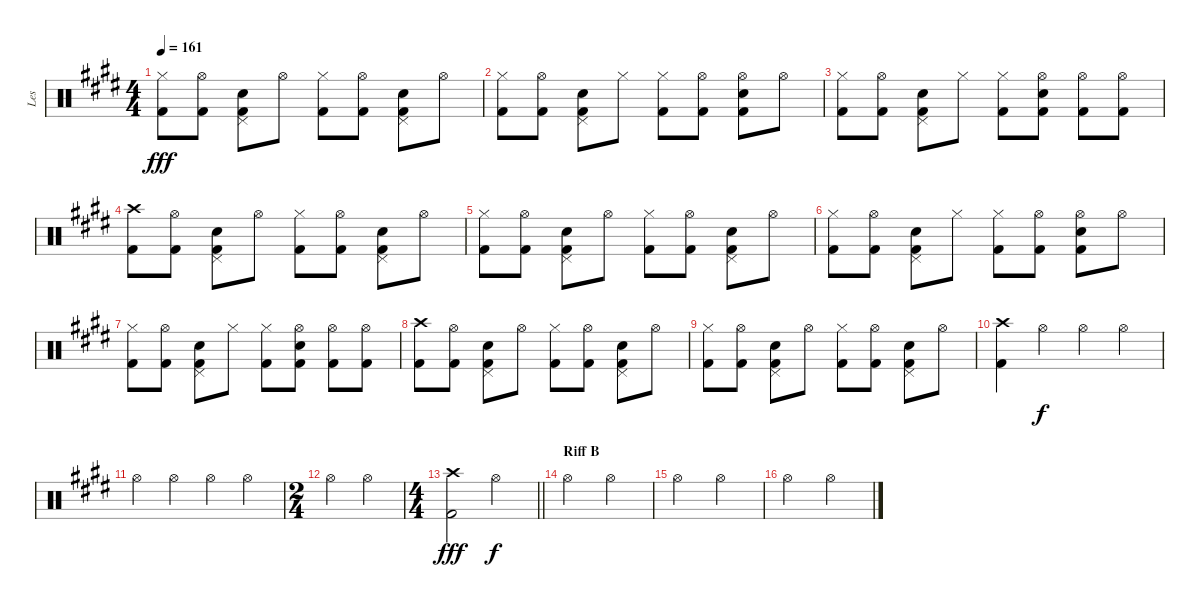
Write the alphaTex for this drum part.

\track ("Les" "Les") {instrument percussion}
\staff {score}
\articulation defaults
\ts (4 4)
\tempo 161
\clef neutral
\ks e
("Hi-Hat (closed)" "Kick (hit) 2").8{dy fff} ("Hi-Hat (open)" "Kick (hit) 2").8 ("Pedal Hi-Hat (hit)" "Snare (hit) 2" "Kick (hit) 2").8 "Hi-Hat (open)".8 ("Hi-Hat (closed)" "Kick (hit) 2").8 ("Hi-Hat (open)" "Kick (hit) 2").8 ("Pedal Hi-Hat (hit)" "Snare (hit) 2" "Kick (hit) 2").8 "Hi-Hat (open)".8 |
("Hi-Hat (closed)" "Kick (hit) 2").8 ("Hi-Hat (open)" "Kick (hit) 2").8 ("Pedal Hi-Hat (hit)" "Snare (hit) 2" "Kick (hit) 2").8 "Hi-Hat (closed)".8 ("Hi-Hat (closed)" "Kick (hit) 2").8 ("Hi-Hat (open)" "Kick (hit) 2").8 ("Hi-Hat (open)" "Snare (hit) 2" "Kick (hit) 2").8 "Hi-Hat (open)".8 |
("Hi-Hat (closed)" "Kick (hit) 2").8 ("Hi-Hat (open)" "Kick (hit) 2").8 ("Pedal Hi-Hat (hit)" "Snare (hit) 2" "Kick (hit) 2").8 "Hi-Hat (closed)".8 ("Hi-Hat (closed)" "Kick (hit) 2").8 ("Hi-Hat (open)" "Snare (hit) 2" "Kick (hit) 2").8 ("Hi-Hat (open)" "Kick (hit) 2").8 ("Hi-Hat (open)" "Kick (hit) 2").8 |
("Crash high (hit)" "Kick (hit) 2").8 ("Hi-Hat (open)" "Kick (hit) 2").8 ("Pedal Hi-Hat (hit)" "Snare (hit) 2" "Kick (hit) 2").8 "Hi-Hat (open)".8 ("Hi-Hat (closed)" "Kick (hit) 2").8 ("Hi-Hat (open)" "Kick (hit) 2").8 ("Pedal Hi-Hat (hit)" "Snare (hit) 2" "Kick (hit) 2").8 "Hi-Hat (open)".8 |
("Hi-Hat (closed)" "Kick (hit) 2").8 ("Hi-Hat (open)" "Kick (hit) 2").8 ("Pedal Hi-Hat (hit)" "Snare (hit) 2" "Kick (hit) 2").8 "Hi-Hat (open)".8 ("Hi-Hat (closed)" "Kick (hit) 2").8 ("Hi-Hat (open)" "Kick (hit) 2").8 ("Pedal Hi-Hat (hit)" "Snare (hit) 2" "Kick (hit) 2").8 "Hi-Hat (open)".8 |
("Hi-Hat (closed)" "Kick (hit) 2").8 ("Hi-Hat (open)" "Kick (hit) 2").8 ("Pedal Hi-Hat (hit)" "Snare (hit) 2" "Kick (hit) 2").8 "Hi-Hat (closed)".8 ("Hi-Hat (closed)" "Kick (hit) 2").8 ("Hi-Hat (open)" "Kick (hit) 2").8 ("Hi-Hat (open)" "Snare (hit) 2" "Kick (hit) 2").8 "Hi-Hat (open)".8 |
("Hi-Hat (closed)" "Kick (hit) 2").8 ("Hi-Hat (open)" "Kick (hit) 2").8 ("Pedal Hi-Hat (hit)" "Snare (hit) 2" "Kick (hit) 2").8 "Hi-Hat (closed)".8 ("Hi-Hat (closed)" "Kick (hit) 2").8 ("Hi-Hat (open)" "Snare (hit) 2" "Kick (hit) 2").8 ("Hi-Hat (open)" "Kick (hit) 2").8 ("Hi-Hat (open)" "Kick (hit) 2").8 |
("Crash high (hit)" "Kick (hit) 2").8 ("Hi-Hat (open)" "Kick (hit) 2").8 ("Pedal Hi-Hat (hit)" "Snare (hit) 2" "Kick (hit) 2").8 "Hi-Hat (open)".8 ("Hi-Hat (closed)" "Kick (hit) 2").8 ("Hi-Hat (open)" "Kick (hit) 2").8 ("Pedal Hi-Hat (hit)" "Snare (hit) 2" "Kick (hit) 2").8 "Hi-Hat (open)".8 |
("Hi-Hat (closed)" "Kick (hit) 2").8 ("Hi-Hat (open)" "Kick (hit) 2").8 ("Pedal Hi-Hat (hit)" "Snare (hit) 2" "Kick (hit) 2").8 "Hi-Hat (open)".8 ("Hi-Hat (closed)" "Kick (hit) 2").8 ("Hi-Hat (open)" "Kick (hit) 2").8 ("Pedal Hi-Hat (hit)" "Snare (hit) 2" "Kick (hit) 2").8 "Hi-Hat (open)".8 |
("Crash high (hit)" "Kick (hit) 2").4 "Hi-Hat (open)".4{dy f} "Hi-Hat (open)".4 "Hi-Hat (open)".4 |
"Hi-Hat (open)".4 "Hi-Hat (open)".4 "Hi-Hat (open)".4 "Hi-Hat (open)".4 |
\ts (2 4)
"Hi-Hat (open)".4 "Hi-Hat (open)".4 |
\ts (4 4)
\barLineRight lightlight
("Crash high (hit)" "Kick (hit) 2").2{dy fff} "Hi-Hat (open)".2{dy f} |
\section ("" "Riff B")
"Hi-Hat (open)".2 "Hi-Hat (open)".2 |
"Hi-Hat (open)".2 "Hi-Hat (open)".2 |
"Hi-Hat (open)".2 "Hi-Hat (open)".2
